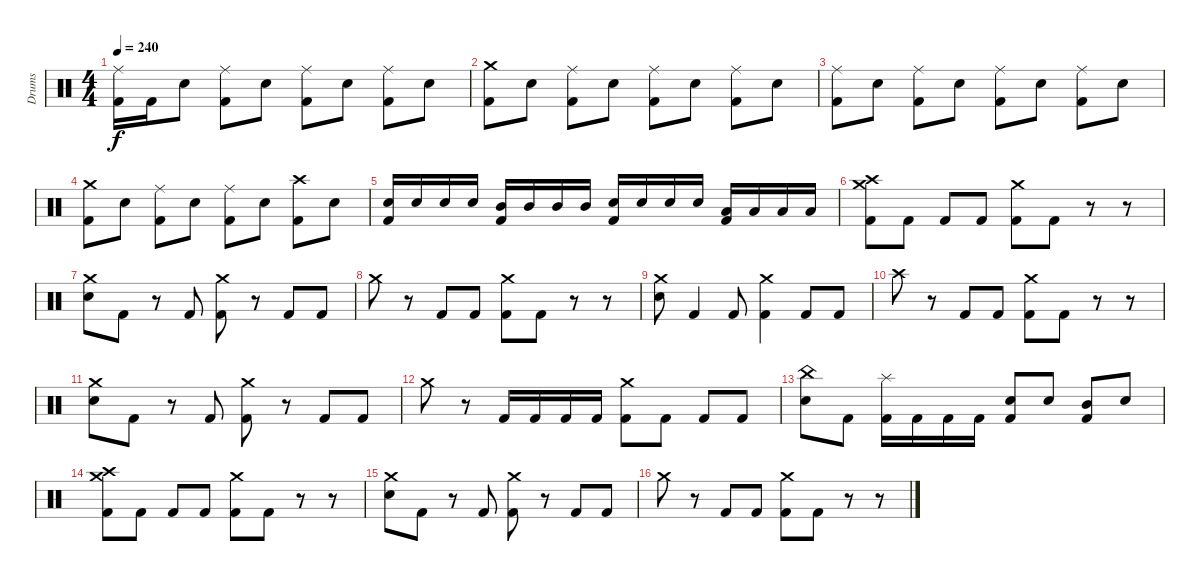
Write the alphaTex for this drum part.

\track ("Drums" "Drums") {instrument percussion}
\staff
\articulation defaults
\ts (4 4)
\tempo 240
\clef neutral
\ks c
("Ride (middle)" "Kick (hit) 2").16{dy f} "Kick (hit) 2".16 "Electric Snare (hit)".8 ("Ride (middle)" "Kick (hit) 2").8 "Electric Snare (hit)".8 ("Ride (middle)" "Kick (hit) 2").8 "Electric Snare (hit)".8 ("Ride (middle)" "Kick (hit) 2").8 "Electric Snare (hit)".8 |
("Crash medium (hit)" "Kick (hit) 2").8 "Electric Snare (hit)".8 ("Ride (middle)" "Kick (hit) 2").8 "Electric Snare (hit)".8 ("Ride (middle)" "Kick (hit) 2").8 "Electric Snare (hit)".8 ("Ride (middle)" "Kick (hit) 2").8 "Electric Snare (hit)".8 |
("Ride (middle)" "Kick (hit) 2").8 "Electric Snare (hit)".8 ("Ride (middle)" "Kick (hit) 2").8 "Electric Snare (hit)".8 ("Ride (middle)" "Kick (hit) 2").8 "Electric Snare (hit)".8 ("Ride (middle)" "Kick (hit) 2").8 "Electric Snare (hit)".8 |
("Crash medium (hit)" "Kick (hit) 2").8 "Electric Snare (hit)".8 ("Ride (middle)" "Kick (hit) 2").8 "Electric Snare (hit)".8 ("Ride (middle)" "Kick (hit) 2").8 "Electric Snare (hit)".8 ("Crash high (hit)" "Kick (hit) 2").8 "Electric Snare (hit)".8 |
("Electric Snare (hit)" "Kick (hit) 2").16 "Electric Snare (hit)".16 "Electric Snare (hit)".16 "Electric Snare (hit)".16 ("Mid Tom (hit)" "Kick (hit) 2").16 "Mid Tom (hit)".16 "Mid Tom (hit)".16 "Mid Tom (hit)".16 ("Electric Snare (hit)" "Kick (hit) 2").16 "Electric Snare (hit)".16 "Electric Snare (hit)".16 "Electric Snare (hit)".16 ("Low Tom (hit)" "Kick (hit) 2").16 "Low Tom (hit)".16 "Low Tom (hit)".16 "Low Tom (hit)".16 |
("Crash medium (hit)" "Crash high (hit)" "Kick (hit) 2").8 "Kick (hit) 2".8 "Kick (hit) 2".8 "Kick (hit) 2".8 ("Crash medium (hit)" "Kick (hit) 2").8 "Kick (hit) 2".8 r.8 r.8 |
("Crash medium (hit)" "Electric Snare (hit)").8 "Kick (hit) 2".8 r.8 "Kick (hit) 2".8 ("Crash medium (hit)" "Kick (hit) 2").8 r.8 "Kick (hit) 2".8 "Kick (hit) 2".8 |
"Crash medium (hit)".8 r.8 "Kick (hit) 2".8 "Kick (hit) 2".8 ("Crash medium (hit)" "Kick (hit) 2").8 "Kick (hit) 2".8 r.8 r.8 |
("Crash medium (hit)" "Electric Snare (hit)").8 "Kick (hit) 2".4 "Kick (hit) 2".8 ("Crash medium (hit)" "Kick (hit) 2").4 "Kick (hit) 2".8 "Kick (hit) 2".8 |
"Crash high (hit)".8 r.8 "Kick (hit) 2".8 "Kick (hit) 2".8 ("Crash medium (hit)" "Kick (hit) 2").8 "Kick (hit) 2".8 r.8 r.8 |
("Crash medium (hit)" "Electric Snare (hit)").8 "Kick (hit) 2".8 r.8 "Kick (hit) 2".8 ("Crash medium (hit)" "Kick (hit) 2").8 r.8 "Kick (hit) 2".8 "Kick (hit) 2".8 |
"Crash medium (hit)".8 r.8 "Kick (hit) 2".16 "Kick (hit) 2".16 "Kick (hit) 2".16 "Kick (hit) 2".16 ("Crash medium (hit)" "Kick (hit) 2").8 "Kick (hit) 2".8 "Kick (hit) 2".8 "Kick (hit) 2".8 |
("China (hit)" "Electric Snare (hit)").8 "Kick (hit) 2".8 ("Splash (hit)" "Kick (hit) 2").16 "Kick (hit) 2".16 "Kick (hit) 2".16 "Kick (hit) 2".16 ("Electric Snare (hit)" "Kick (hit) 2").8 "Electric Snare (hit)".8 ("Mid Tom (hit)" "Kick (hit) 2").8 "Electric Snare (hit)".8 |
("Crash medium (hit)" "Crash high (hit)" "Kick (hit) 2").8 "Kick (hit) 2".8 "Kick (hit) 2".8 "Kick (hit) 2".8 ("Crash medium (hit)" "Kick (hit) 2").8 "Kick (hit) 2".8 r.8 r.8 |
("Crash medium (hit)" "Electric Snare (hit)").8 "Kick (hit) 2".8 r.8 "Kick (hit) 2".8 ("Crash medium (hit)" "Kick (hit) 2").8 r.8 "Kick (hit) 2".8 "Kick (hit) 2".8 |
"Crash medium (hit)".8 r.8 "Kick (hit) 2".8 "Kick (hit) 2".8 ("Crash medium (hit)" "Kick (hit) 2").8 "Kick (hit) 2".8 r.8 r.8
